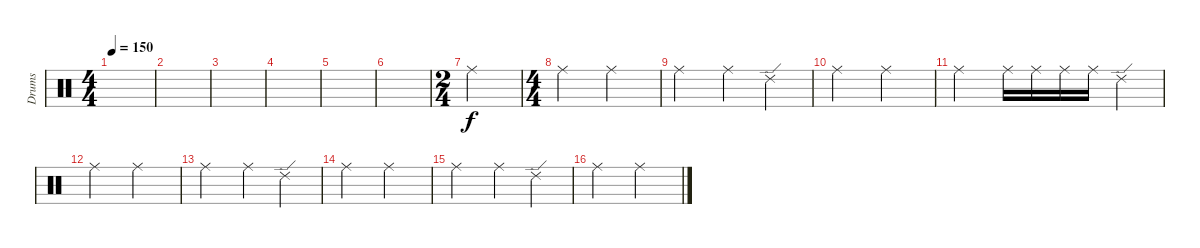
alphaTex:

\track ("Drums" "Drums") {instrument percussion}
\staff {score}
\articulation defaults
\ts (4 4)
\tempo 150
\clef neutral
\ks c
|
|
|
|
|
|
\ts (2 4)
"Ride (middle)".2 |
\ts (4 4)
"Ride (middle)".2 "Ride (middle)".2 |
"Ride (middle)".2 "Ride (middle)".4 "Ride (edge) 2".4 |
"Ride (middle)".2 "Ride (middle)".2 |
"Ride (middle)".2 "Ride (middle)".16 "Ride (middle)".16 "Ride (middle)".16 "Ride (middle)".16 "Ride (edge) 2".4 |
"Ride (middle)".2 "Ride (middle)".2 |
"Ride (middle)".2 "Ride (middle)".4 "Ride (edge) 2".4 |
"Ride (middle)".2 "Ride (middle)".2 |
"Ride (middle)".2 "Ride (middle)".4 "Ride (edge) 2".4 |
"Ride (middle)".2 "Ride (middle)".2
